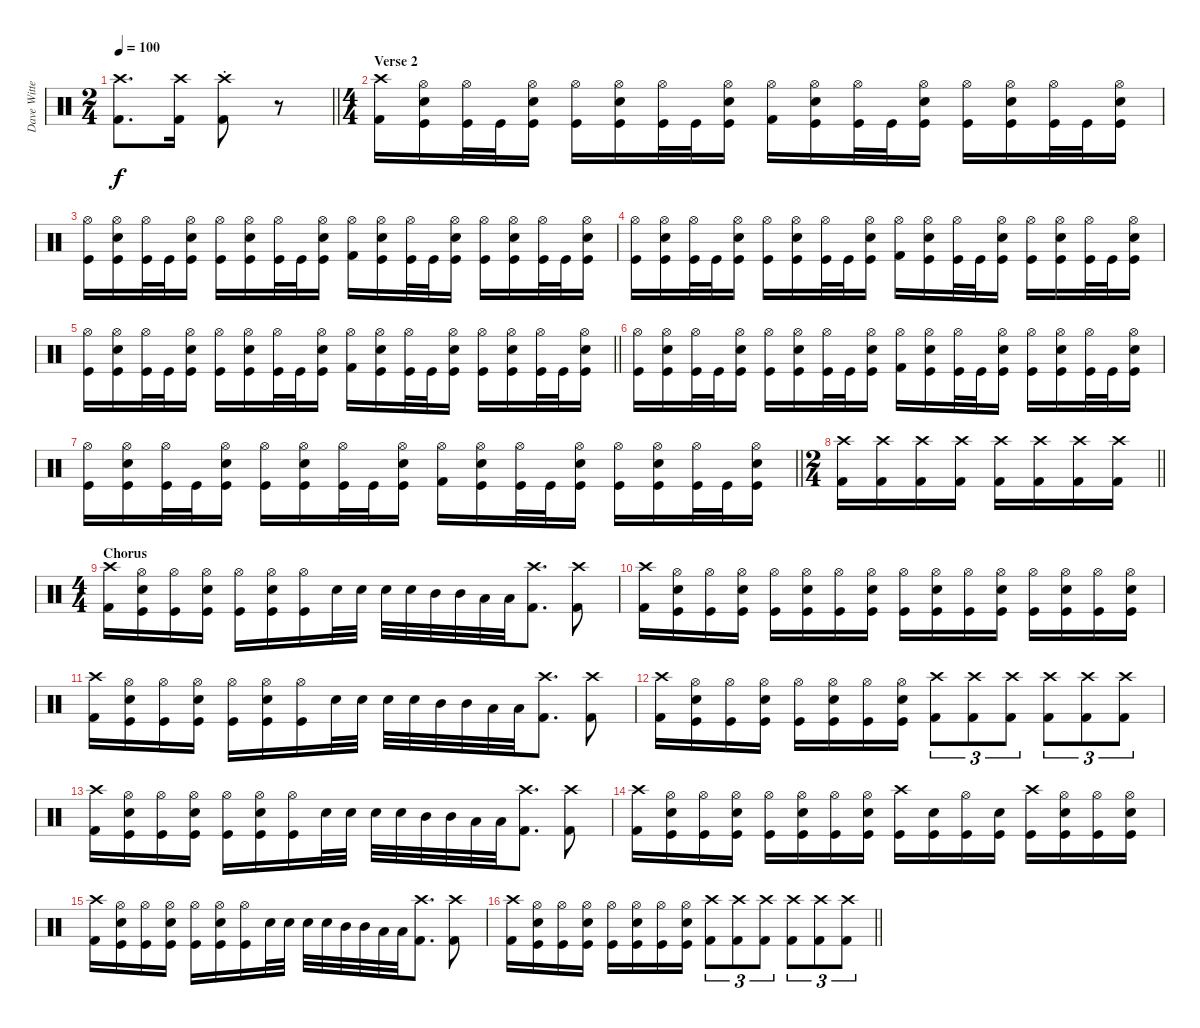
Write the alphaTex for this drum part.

\track ("Dave Witte " "Dave Witte") {instrument percussion}
\staff {score}
\articulation defaults
\ts (2 4)
\tempo 100
\clef neutral
\barLineRight lightlight
\ks c
("Kick (hit) 2" "Crash high (hit)").8{d dy f} ("Kick (hit) 2" "Crash high (hit)").16 ("Kick (hit) 2"{st} "Crash high (hit)"{st}).8 r.8 |
\ts (4 4)
\section ("" "Verse 2")
("Kick (hit) 2" "Crash high (hit)").16 ("Kick (hit)" "Electric Snare (hit)" "Hi-Hat (open)").16 ("Kick (hit)" "Hi-Hat (open)").32 "Kick (hit)".32 ("Kick (hit)" "Electric Snare (hit)" "Hi-Hat (open)").16 ("Kick (hit)" "Hi-Hat (open)").16 ("Kick (hit)" "Electric Snare (hit)" "Hi-Hat (open)").16 ("Kick (hit)" "Hi-Hat (open)").32 "Kick (hit)".32 ("Kick (hit)" "Electric Snare (hit)" "Hi-Hat (open)").16 ("Kick (hit) 2" "Hi-Hat (open)").16 ("Kick (hit)" "Electric Snare (hit)" "Hi-Hat (open)").16 ("Kick (hit)" "Hi-Hat (open)").32 "Kick (hit)".32 ("Kick (hit)" "Electric Snare (hit)" "Hi-Hat (open)").16 ("Kick (hit)" "Hi-Hat (open)").16 ("Kick (hit)" "Electric Snare (hit)" "Hi-Hat (open)").16 ("Kick (hit)" "Hi-Hat (open)").32 "Kick (hit)".32 ("Kick (hit)" "Electric Snare (hit)" "Hi-Hat (open)").16 |
("Kick (hit)" "Hi-Hat (open)").16 ("Kick (hit)" "Electric Snare (hit)" "Hi-Hat (open)").16 ("Kick (hit)" "Hi-Hat (open)").32 "Kick (hit)".32 ("Kick (hit)" "Electric Snare (hit)" "Hi-Hat (open)").16 ("Kick (hit)" "Hi-Hat (open)").16 ("Kick (hit)" "Electric Snare (hit)" "Hi-Hat (open)").16 ("Kick (hit)" "Hi-Hat (open)").32 "Kick (hit)".32 ("Kick (hit)" "Electric Snare (hit)" "Hi-Hat (open)").16 ("Kick (hit) 2" "Hi-Hat (open)").16 ("Kick (hit)" "Electric Snare (hit)" "Hi-Hat (open)").16 ("Kick (hit)" "Hi-Hat (open)").32 "Kick (hit)".32 ("Kick (hit)" "Electric Snare (hit)" "Hi-Hat (open)").16 ("Kick (hit)" "Hi-Hat (open)").16 ("Kick (hit)" "Electric Snare (hit)" "Hi-Hat (open)").16 ("Kick (hit)" "Hi-Hat (open)").32 "Kick (hit)".32 ("Kick (hit)" "Electric Snare (hit)" "Hi-Hat (open)").16 |
("Kick (hit)" "Hi-Hat (open)").16 ("Kick (hit)" "Electric Snare (hit)" "Hi-Hat (open)").16 ("Kick (hit)" "Hi-Hat (open)").32 "Kick (hit)".32 ("Kick (hit)" "Electric Snare (hit)" "Hi-Hat (open)").16 ("Kick (hit)" "Hi-Hat (open)").16 ("Kick (hit)" "Electric Snare (hit)" "Hi-Hat (open)").16 ("Kick (hit)" "Hi-Hat (open)").32 "Kick (hit)".32 ("Kick (hit)" "Electric Snare (hit)" "Hi-Hat (open)").16 ("Kick (hit) 2" "Hi-Hat (open)").16 ("Kick (hit)" "Electric Snare (hit)" "Hi-Hat (open)").16 ("Kick (hit)" "Hi-Hat (open)").32 "Kick (hit)".32 ("Kick (hit)" "Electric Snare (hit)" "Hi-Hat (open)").16 ("Kick (hit)" "Hi-Hat (open)").16 ("Kick (hit)" "Electric Snare (hit)" "Hi-Hat (open)").16 ("Kick (hit)" "Hi-Hat (open)").32 "Kick (hit)".32 ("Kick (hit)" "Electric Snare (hit)" "Hi-Hat (open)").16 |
\barLineRight lightlight
("Kick (hit)" "Hi-Hat (open)").16 ("Kick (hit)" "Electric Snare (hit)" "Hi-Hat (open)").16 ("Kick (hit)" "Hi-Hat (open)").32 "Kick (hit)".32 ("Kick (hit)" "Electric Snare (hit)" "Hi-Hat (open)").16 ("Kick (hit)" "Hi-Hat (open)").16 ("Kick (hit)" "Electric Snare (hit)" "Hi-Hat (open)").16 ("Kick (hit)" "Hi-Hat (open)").32 "Kick (hit)".32 ("Kick (hit)" "Electric Snare (hit)" "Hi-Hat (open)").16 ("Kick (hit) 2" "Hi-Hat (open)").16 ("Kick (hit)" "Electric Snare (hit)" "Hi-Hat (open)").16 ("Kick (hit)" "Hi-Hat (open)").32 "Kick (hit)".32 ("Kick (hit)" "Electric Snare (hit)" "Hi-Hat (open)").16 ("Kick (hit)" "Hi-Hat (open)").16 ("Kick (hit)" "Electric Snare (hit)" "Hi-Hat (open)").16 ("Kick (hit)" "Hi-Hat (open)").32 "Kick (hit)".32 ("Kick (hit)" "Electric Snare (hit)" "Hi-Hat (open)").16 |
("Kick (hit)" "Hi-Hat (open)").16 ("Kick (hit)" "Electric Snare (hit)" "Hi-Hat (open)").16 ("Kick (hit)" "Hi-Hat (open)").32 "Kick (hit)".32 ("Kick (hit)" "Electric Snare (hit)" "Hi-Hat (open)").16 ("Kick (hit)" "Hi-Hat (open)").16 ("Kick (hit)" "Electric Snare (hit)" "Hi-Hat (open)").16 ("Kick (hit)" "Hi-Hat (open)").32 "Kick (hit)".32 ("Kick (hit)" "Electric Snare (hit)" "Hi-Hat (open)").16 ("Kick (hit) 2" "Hi-Hat (open)").16 ("Kick (hit)" "Electric Snare (hit)" "Hi-Hat (open)").16 ("Kick (hit)" "Hi-Hat (open)").32 "Kick (hit)".32 ("Kick (hit)" "Electric Snare (hit)" "Hi-Hat (open)").16 ("Kick (hit)" "Hi-Hat (open)").16 ("Kick (hit)" "Electric Snare (hit)" "Hi-Hat (open)").16 ("Kick (hit)" "Hi-Hat (open)").32 "Kick (hit)".32 ("Kick (hit)" "Electric Snare (hit)" "Hi-Hat (open)").16 |
\barLineRight lightlight
("Kick (hit)" "Hi-Hat (open)").16 ("Kick (hit)" "Electric Snare (hit)" "Hi-Hat (open)").16 ("Kick (hit)" "Hi-Hat (open)").32 "Kick (hit)".32 ("Kick (hit)" "Electric Snare (hit)" "Hi-Hat (open)").16 ("Kick (hit)" "Hi-Hat (open)").16 ("Kick (hit)" "Electric Snare (hit)" "Hi-Hat (open)").16 ("Kick (hit)" "Hi-Hat (open)").32 "Kick (hit)".32 ("Kick (hit)" "Electric Snare (hit)" "Hi-Hat (open)").16 ("Kick (hit) 2" "Hi-Hat (open)").16 ("Kick (hit)" "Electric Snare (hit)" "Hi-Hat (open)").16 ("Kick (hit)" "Hi-Hat (open)").32 "Kick (hit)".32 ("Kick (hit)" "Electric Snare (hit)" "Hi-Hat (open)").16 ("Kick (hit)" "Hi-Hat (open)").16 ("Kick (hit)" "Electric Snare (hit)" "Hi-Hat (open)").16 ("Kick (hit)" "Hi-Hat (open)").32 "Kick (hit)".32 ("Kick (hit)" "Electric Snare (hit)" "Hi-Hat (open)").16 |
\ts (2 4)
\barLineRight lightlight
("Kick (hit) 2" "Crash high (hit)").16 ("Kick (hit) 2" "Crash high (hit)").16 ("Kick (hit) 2" "Crash high (hit)").16 ("Kick (hit) 2" "Crash high (hit)").16 ("Kick (hit) 2" "Crash high (hit)").16 ("Kick (hit) 2" "Crash high (hit)").16 ("Kick (hit) 2" "Crash high (hit)").16 ("Kick (hit) 2" "Crash high (hit)").16 |
\ts (4 4)
\section ("" "Chorus")
("Kick (hit) 2" "Crash high (hit)").16 ("Kick (hit)" "Electric Snare (hit)" "Hi-Hat (open)").16 ("Kick (hit)" "Hi-Hat (open)").16 ("Kick (hit)" "Electric Snare (hit)" "Hi-Hat (open)").16 ("Kick (hit)" "Hi-Hat (open)").16 ("Kick (hit)" "Electric Snare (hit)" "Hi-Hat (open)").16 ("Kick (hit)" "Hi-Hat (open)").16 "Electric Snare (hit)".32 "Electric Snare (hit)".32 "Electric Snare (hit)".32 "Electric Snare (hit)".32 "Mid Tom (hit)".32 "Mid Tom (hit)".32 "Low Tom (hit)".32 "Low Tom (hit)".32 ("Kick (hit) 2" "Crash high (hit)").8{d} ("Kick (hit) 2" "Crash high (hit)").8 |
("Kick (hit) 2" "Crash high (hit)").16 ("Kick (hit)" "Electric Snare (hit)" "Hi-Hat (open)").16 ("Kick (hit)" "Hi-Hat (open)").16 ("Kick (hit)" "Electric Snare (hit)" "Hi-Hat (open)").16 ("Kick (hit)" "Hi-Hat (open)").16 ("Kick (hit)" "Electric Snare (hit)" "Hi-Hat (open)").16 ("Kick (hit)" "Hi-Hat (open)").16 ("Kick (hit)" "Electric Snare (hit)" "Hi-Hat (open)").16 ("Kick (hit)" "Hi-Hat (open)").16 ("Kick (hit)" "Electric Snare (hit)" "Hi-Hat (open)").16 ("Kick (hit)" "Hi-Hat (open)").16 ("Kick (hit)" "Electric Snare (hit)" "Hi-Hat (open)").16 ("Kick (hit)" "Hi-Hat (open)").16 ("Kick (hit)" "Electric Snare (hit)" "Hi-Hat (open)").16 ("Kick (hit)" "Hi-Hat (open)").16 ("Kick (hit)" "Electric Snare (hit)" "Hi-Hat (open)").16 |
("Kick (hit) 2" "Crash high (hit)").16 ("Kick (hit)" "Electric Snare (hit)" "Hi-Hat (open)").16 ("Kick (hit)" "Hi-Hat (open)").16 ("Kick (hit)" "Electric Snare (hit)" "Hi-Hat (open)").16 ("Kick (hit)" "Hi-Hat (open)").16 ("Kick (hit)" "Electric Snare (hit)" "Hi-Hat (open)").16 ("Kick (hit)" "Hi-Hat (open)").16 "Electric Snare (hit)".32 "Electric Snare (hit)".32 "Electric Snare (hit)".32 "Electric Snare (hit)".32 "Mid Tom (hit)".32 "Mid Tom (hit)".32 "Low Tom (hit)".32 "Low Tom (hit)".32 ("Kick (hit) 2" "Crash high (hit)").8{d} ("Kick (hit) 2" "Crash high (hit)").8 |
("Kick (hit) 2" "Crash high (hit)").16 ("Kick (hit)" "Electric Snare (hit)" "Hi-Hat (open)").16 ("Kick (hit)" "Hi-Hat (open)").16 ("Kick (hit)" "Electric Snare (hit)" "Hi-Hat (open)").16 ("Kick (hit)" "Hi-Hat (open)").16 ("Kick (hit)" "Electric Snare (hit)" "Hi-Hat (open)").16 ("Kick (hit)" "Hi-Hat (open)").16 ("Kick (hit)" "Electric Snare (hit)" "Hi-Hat (open)").16 ("Kick (hit) 2" "Crash high (hit)").8{tu (3 2)} ("Kick (hit) 2" "Crash high (hit)").8{tu (3 2)} ("Kick (hit) 2" "Crash high (hit)").8{tu (3 2)} ("Kick (hit) 2" "Crash high (hit)").8{tu (3 2)} ("Kick (hit) 2" "Crash high (hit)").8{tu (3 2)} ("Kick (hit) 2" "Crash high (hit)").8{tu (3 2)} |
("Kick (hit) 2" "Crash high (hit)").16 ("Kick (hit)" "Electric Snare (hit)" "Hi-Hat (open)").16 ("Kick (hit)" "Hi-Hat (open)").16 ("Kick (hit)" "Electric Snare (hit)" "Hi-Hat (open)").16 ("Kick (hit)" "Hi-Hat (open)").16 ("Kick (hit)" "Electric Snare (hit)" "Hi-Hat (open)").16 ("Kick (hit)" "Hi-Hat (open)").16 "Electric Snare (hit)".32 "Electric Snare (hit)".32 "Electric Snare (hit)".32 "Electric Snare (hit)".32 "Mid Tom (hit)".32 "Mid Tom (hit)".32 "Low Tom (hit)".32 "Low Tom (hit)".32 ("Kick (hit) 2" "Crash high (hit)").8{d} ("Kick (hit) 2" "Crash high (hit)").8 |
("Kick (hit) 2" "Crash high (hit)").16 ("Kick (hit)" "Electric Snare (hit)" "Hi-Hat (open)").16 ("Kick (hit)" "Hi-Hat (open)").16 ("Kick (hit)" "Electric Snare (hit)" "Hi-Hat (open)").16 ("Kick (hit)" "Hi-Hat (open)").16 ("Kick (hit)" "Electric Snare (hit)" "Hi-Hat (open)").16 ("Kick (hit)" "Hi-Hat (open)").16 ("Kick (hit)" "Electric Snare (hit)" "Hi-Hat (open)").16 ("Kick (hit)" "Crash high (hit)").16 ("Kick (hit)" "Electric Snare (hit)").16 ("Kick (hit)" "Hi-Hat (open)").16 ("Kick (hit)" "Electric Snare (hit)").16 ("Kick (hit)" "Crash high (hit)").16 ("Kick (hit)" "Electric Snare (hit)" "Hi-Hat (open)").16 ("Kick (hit)" "Hi-Hat (open)").16 ("Kick (hit)" "Electric Snare (hit)" "Hi-Hat (open)").16 |
("Kick (hit) 2" "Crash high (hit)").16 ("Kick (hit)" "Electric Snare (hit)" "Hi-Hat (open)").16 ("Kick (hit)" "Hi-Hat (open)").16 ("Kick (hit)" "Electric Snare (hit)" "Hi-Hat (open)").16 ("Kick (hit)" "Hi-Hat (open)").16 ("Kick (hit)" "Electric Snare (hit)" "Hi-Hat (open)").16 ("Kick (hit)" "Hi-Hat (open)").16 "Electric Snare (hit)".32 "Electric Snare (hit)".32 "Electric Snare (hit)".32 "Electric Snare (hit)".32 "Mid Tom (hit)".32 "Mid Tom (hit)".32 "Low Tom (hit)".32 "Low Tom (hit)".32 ("Kick (hit) 2" "Crash high (hit)").8{d} ("Kick (hit) 2" "Crash high (hit)").8 |
\barLineRight lightlight
("Kick (hit) 2" "Crash high (hit)").16 ("Kick (hit)" "Electric Snare (hit)" "Hi-Hat (open)").16 ("Kick (hit)" "Hi-Hat (open)").16 ("Kick (hit)" "Electric Snare (hit)" "Hi-Hat (open)").16 ("Kick (hit)" "Hi-Hat (open)").16 ("Kick (hit)" "Electric Snare (hit)" "Hi-Hat (open)").16 ("Kick (hit)" "Hi-Hat (open)").16 ("Kick (hit)" "Electric Snare (hit)" "Hi-Hat (open)").16 ("Kick (hit) 2" "Crash high (hit)").8{tu (3 2)} ("Kick (hit) 2" "Crash high (hit)").8{tu (3 2)} ("Kick (hit) 2" "Crash high (hit)").8{tu (3 2)} ("Kick (hit) 2" "Crash high (hit)").8{tu (3 2)} ("Kick (hit) 2" "Crash high (hit)").8{tu (3 2)} ("Kick (hit) 2" "Crash high (hit)").8{tu (3 2)}
